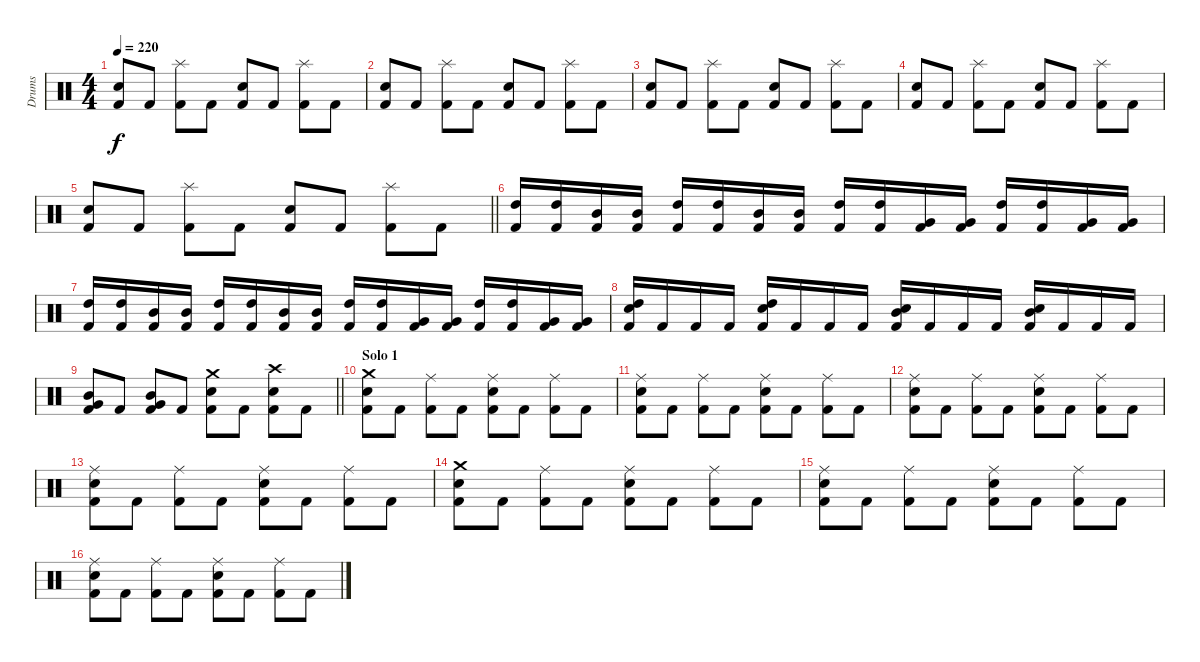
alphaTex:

\track ("Drums" "Drums") {instrument percussion}
\staff {score}
\articulation defaults
\ts (4 4)
\tempo 220
\clef neutral
\ks c
("Kick (hit) 2" "Snare (hit) 2").8{dy f} "Kick (hit) 2".8 ("Kick (hit) 2" "Splash (hit)").8 "Kick (hit) 2".8 ("Kick (hit) 2" "Snare (hit) 2").8 "Kick (hit) 2".8 ("Kick (hit) 2" "Splash (hit)").8 "Kick (hit) 2".8 |
("Kick (hit) 2" "Snare (hit) 2").8 "Kick (hit) 2".8 ("Kick (hit) 2" "Splash (hit)").8 "Kick (hit) 2".8 ("Kick (hit) 2" "Snare (hit) 2").8 "Kick (hit) 2".8 ("Kick (hit) 2" "Splash (hit)").8 "Kick (hit) 2".8 |
("Kick (hit) 2" "Snare (hit) 2").8 "Kick (hit) 2".8 ("Kick (hit) 2" "Splash (hit)").8 "Kick (hit) 2".8 ("Kick (hit) 2" "Snare (hit) 2").8 "Kick (hit) 2".8 ("Kick (hit) 2" "Splash (hit)").8 "Kick (hit) 2".8 |
("Kick (hit) 2" "Snare (hit) 2").8 "Kick (hit) 2".8 ("Kick (hit) 2" "Splash (hit)").8 "Kick (hit) 2".8 ("Kick (hit) 2" "Snare (hit) 2").8 "Kick (hit) 2".8 ("Kick (hit) 2" "Splash (hit)").8 "Kick (hit) 2".8 |
\barLineRight lightlight
("Kick (hit) 2" "Snare (hit) 2").8 "Kick (hit) 2".8 ("Kick (hit) 2" "Splash (hit)").8 "Kick (hit) 2".8 ("Kick (hit) 2" "Snare (hit) 2").8 "Kick (hit) 2".8 ("Kick (hit) 2" "Splash (hit)").8 "Kick (hit) 2".8 |
("Kick (hit) 2" "High Tom (hit)").16 ("Kick (hit) 2" "High Tom (hit)").16 ("Kick (hit) 2" "Mid Tom (hit)").16 ("Kick (hit) 2" "Mid Tom (hit)").16 ("Kick (hit) 2" "High Tom (hit)").16 ("Kick (hit) 2" "High Tom (hit)").16 ("Kick (hit) 2" "Mid Tom (hit)").16 ("Kick (hit) 2" "Mid Tom (hit)").16 ("Kick (hit) 2" "High Tom (hit)").16 ("Kick (hit) 2" "High Tom (hit)").16 ("Kick (hit) 2" "Very Low Tom (hit)").16 ("Kick (hit) 2" "Very Low Tom (hit)").16 ("Kick (hit) 2" "High Tom (hit)").16 ("Kick (hit) 2" "High Tom (hit)").16 ("Kick (hit) 2" "Very Low Tom (hit)").16 ("Kick (hit) 2" "Very Low Tom (hit)").16 |
("Kick (hit) 2" "High Tom (hit)").16 ("Kick (hit) 2" "High Tom (hit)").16 ("Kick (hit) 2" "Mid Tom (hit)").16 ("Kick (hit) 2" "Mid Tom (hit)").16 ("Kick (hit) 2" "High Tom (hit)").16 ("Kick (hit) 2" "High Tom (hit)").16 ("Kick (hit) 2" "Mid Tom (hit)").16 ("Kick (hit) 2" "Mid Tom (hit)").16 ("Kick (hit) 2" "High Tom (hit)").16 ("Kick (hit) 2" "High Tom (hit)").16 ("Kick (hit) 2" "Very Low Tom (hit)").16 ("Kick (hit) 2" "Very Low Tom (hit)").16 ("Kick (hit) 2" "High Tom (hit)").16 ("Kick (hit) 2" "High Tom (hit)").16 ("Kick (hit) 2" "Very Low Tom (hit)").16 ("Kick (hit) 2" "Very Low Tom (hit)").16 |
("Kick (hit) 2" "Snare (hit) 2" "High Tom (hit)").16 "Kick (hit) 2".16 "Kick (hit) 2".16 "Kick (hit) 2".16 ("Kick (hit) 2" "Snare (hit) 2" "High Tom (hit)").16 "Kick (hit) 2".16 "Kick (hit) 2".16 "Kick (hit) 2".16 ("Kick (hit) 2" "Snare (hit) 2" "Mid Tom (hit)").16 "Kick (hit) 2".16 "Kick (hit) 2".16 "Kick (hit) 2".16 ("Kick (hit) 2" "Snare (hit) 2" "Mid Tom (hit)").16 "Kick (hit) 2".16 "Kick (hit) 2".16 "Kick (hit) 2".16 |
\barLineRight lightlight
("Kick (hit) 2" "Mid Tom (hit)" "Very Low Tom (hit)").8 "Kick (hit) 2".8 ("Kick (hit) 2" "Mid Tom (hit)" "Very Low Tom (hit)").8 "Kick (hit) 2".8 ("Kick (hit) 2" "Snare (hit) 2" "Crash medium (hit)").8 "Kick (hit) 2".8 ("Kick (hit) 2" "Snare (hit) 2" "Crash high (hit)").8 "Kick (hit) 2".8 |
\section ("" "Solo 1")
("Kick (hit) 2" "Snare (hit) 2" "Crash medium (hit)").8 "Kick (hit) 2".8 ("Kick (hit) 2" "Ride (middle)").8 "Kick (hit) 2".8 ("Kick (hit) 2" "Snare (hit) 2" "Ride (middle)").8 "Kick (hit) 2".8 ("Kick (hit) 2" "Ride (middle)").8 "Kick (hit) 2".8 |
("Kick (hit) 2" "Snare (hit) 2" "Ride (middle)").8 "Kick (hit) 2".8 ("Kick (hit) 2" "Ride (middle)").8 "Kick (hit) 2".8 ("Kick (hit) 2" "Snare (hit) 2" "Ride (middle)").8 "Kick (hit) 2".8 ("Kick (hit) 2" "Ride (middle)").8 "Kick (hit) 2".8 |
("Kick (hit) 2" "Snare (hit) 2" "Ride (middle)").8 "Kick (hit) 2".8 ("Kick (hit) 2" "Ride (middle)").8 "Kick (hit) 2".8 ("Kick (hit) 2" "Snare (hit) 2" "Ride (middle)").8 "Kick (hit) 2".8 ("Kick (hit) 2" "Ride (middle)").8 "Kick (hit) 2".8 |
("Kick (hit) 2" "Snare (hit) 2" "Ride (middle)").8 "Kick (hit) 2".8 ("Kick (hit) 2" "Ride (middle)").8 "Kick (hit) 2".8 ("Kick (hit) 2" "Snare (hit) 2" "Ride (middle)").8 "Kick (hit) 2".8 ("Kick (hit) 2" "Ride (middle)").8 "Kick (hit) 2".8 |
("Kick (hit) 2" "Snare (hit) 2" "Crash medium (hit)").8 "Kick (hit) 2".8 ("Kick (hit) 2" "Ride (middle)").8 "Kick (hit) 2".8 ("Kick (hit) 2" "Snare (hit) 2" "Ride (middle)").8 "Kick (hit) 2".8 ("Kick (hit) 2" "Ride (middle)").8 "Kick (hit) 2".8 |
("Kick (hit) 2" "Snare (hit) 2" "Ride (middle)").8 "Kick (hit) 2".8 ("Kick (hit) 2" "Ride (middle)").8 "Kick (hit) 2".8 ("Kick (hit) 2" "Snare (hit) 2" "Ride (middle)").8 "Kick (hit) 2".8 ("Kick (hit) 2" "Ride (middle)").8 "Kick (hit) 2".8 |
("Kick (hit) 2" "Snare (hit) 2" "Ride (middle)").8 "Kick (hit) 2".8 ("Kick (hit) 2" "Ride (middle)").8 "Kick (hit) 2".8 ("Kick (hit) 2" "Snare (hit) 2" "Ride (middle)").8 "Kick (hit) 2".8 ("Kick (hit) 2" "Ride (middle)").8 "Kick (hit) 2".8
